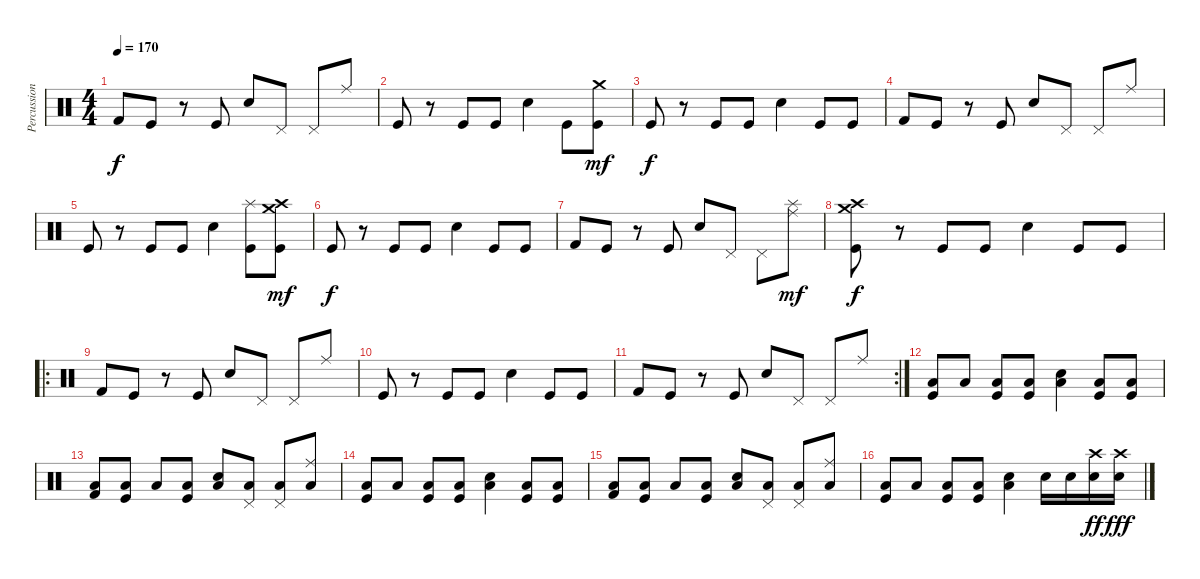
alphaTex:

\track ("Percussion" "Percussion") {instrument percussion}
\staff {score}
\articulation defaults
\ts (4 4)
\tempo 170
\clef neutral
\ks c "Kick (hit) 2".8{dy f} "Kick (hit)".8
r.8 "Kick (hit)".8 "Electric Snare (hit)".8 "Pedal Hi-Hat (hit)".8 "Pedal Hi-Hat (hit)".8 "Ride (middle)".8 |
"Kick (hit)".8 r.8 "Kick (hit)".8 "Kick (hit)".8 "Electric Snare (hit)".4 "Kick (hit)".8 ("Crash medium (hit)" "Kick (hit)").8{dy mf} |
"Kick (hit)".8{dy f} r.8 "Kick (hit)".8 "Kick (hit)".8 "Electric Snare (hit)".4 "Kick (hit)".8 "Kick (hit)".8 |
"Kick (hit) 2".8 "Kick (hit)".8 r.8 "Kick (hit)".8 "Electric Snare (hit)".8 "Pedal Hi-Hat (hit)".8 "Pedal Hi-Hat (hit)".8 "Ride (middle)".8 |
"Kick (hit)".8 r.8 "Kick (hit)".8 "Kick (hit)".8 "Electric Snare (hit)".4 ("Splash (hit)" "Kick (hit)").8 ("Crash high (hit)" "Crash medium (hit)" "Kick (hit)").8{dy mf} |
"Kick (hit)".8{dy f} r.8 "Kick (hit)".8 "Kick (hit)".8 "Electric Snare (hit)".4 "Kick (hit)".8 "Kick (hit)".8 |
"Kick (hit) 2".8 "Kick (hit)".8 r.8 "Kick (hit)".8 "Electric Snare (hit)".8 "Pedal Hi-Hat (hit)".8 "Pedal Hi-Hat (hit)".8 ("Splash (hit)" "Ride (middle)").8{dy mf} |
("Crash high (hit)" "Crash medium (hit)" "Kick (hit)").8{dy f} r.8 "Kick (hit)".8 "Kick (hit)".8 "Electric Snare (hit)".4 "Kick (hit)".8 "Kick (hit)".8 |
\ro "Kick (hit) 2".8 "Kick (hit)".8
r.8 "Kick (hit)".8 "Electric Snare (hit)".8 "Pedal Hi-Hat (hit)".8 "Pedal Hi-Hat (hit)".8 "Ride (middle)".8 |
"Kick (hit)".8 r.8 "Kick (hit)".8 "Kick (hit)".8 "Electric Snare (hit)".4 "Kick (hit)".8 "Kick (hit)".8 |
\rc 2 "Kick (hit) 2".8 "Kick (hit)".8
r.8 "Kick (hit)".8 "Electric Snare (hit)".8 "Pedal Hi-Hat (hit)".8 "Pedal Hi-Hat (hit)".8 "Ride (middle)".8 |
("Kick (hit)" "Low Floor Tom (hit)").8 "Low Floor Tom (hit)".8 ("Kick (hit)" "Low Floor Tom (hit)").8 ("Kick (hit)" "Low Floor Tom (hit)").8 ("Electric Snare (hit)" "Low Floor Tom (hit)").4 ("Kick (hit)" "Low Floor Tom (hit)").8 ("Kick (hit)" "Low Floor Tom (hit)").8 |
("Kick (hit) 2" "Low Floor Tom (hit)").8 ("Kick (hit)" "Low Floor Tom (hit)").8 "Low Floor Tom (hit)".8 ("Kick (hit)" "Low Floor Tom (hit)").8 ("Electric Snare (hit)" "Low Floor Tom (hit)").8 ("Pedal Hi-Hat (hit)" "Low Floor Tom (hit)").8 ("Pedal Hi-Hat (hit)" "Low Floor Tom (hit)").8 ("Ride (middle)" "Low Floor Tom (hit)").8 |
("Kick (hit)" "Low Floor Tom (hit)").8 "Low Floor Tom (hit)".8 ("Kick (hit)" "Low Floor Tom (hit)").8 ("Kick (hit)" "Low Floor Tom (hit)").8 ("Electric Snare (hit)" "Low Floor Tom (hit)").4 ("Kick (hit)" "Low Floor Tom (hit)").8 ("Kick (hit)" "Low Floor Tom (hit)").8 |
("Kick (hit) 2" "Low Floor Tom (hit)").8 ("Kick (hit)" "Low Floor Tom (hit)").8 "Low Floor Tom (hit)".8 ("Kick (hit)" "Low Floor Tom (hit)").8 ("Electric Snare (hit)" "Low Floor Tom (hit)").8 ("Pedal Hi-Hat (hit)" "Low Floor Tom (hit)").8 ("Pedal Hi-Hat (hit)" "Low Floor Tom (hit)").8 ("Ride (middle)" "Low Floor Tom (hit)").8 |
("Kick (hit)" "Low Floor Tom (hit)").8 "Low Floor Tom (hit)".8 ("Kick (hit)" "Low Floor Tom (hit)").8 ("Kick (hit)" "Low Floor Tom (hit)").8 ("Electric Snare (hit)" "Low Floor Tom (hit)").4 "Electric Snare (hit)".16 "Electric Snare (hit)".16 ("Crash high (hit)" "Electric Snare (hit)").16{dy ff} ("Crash high (hit)" "Electric Snare (hit)").16{dy fff}
